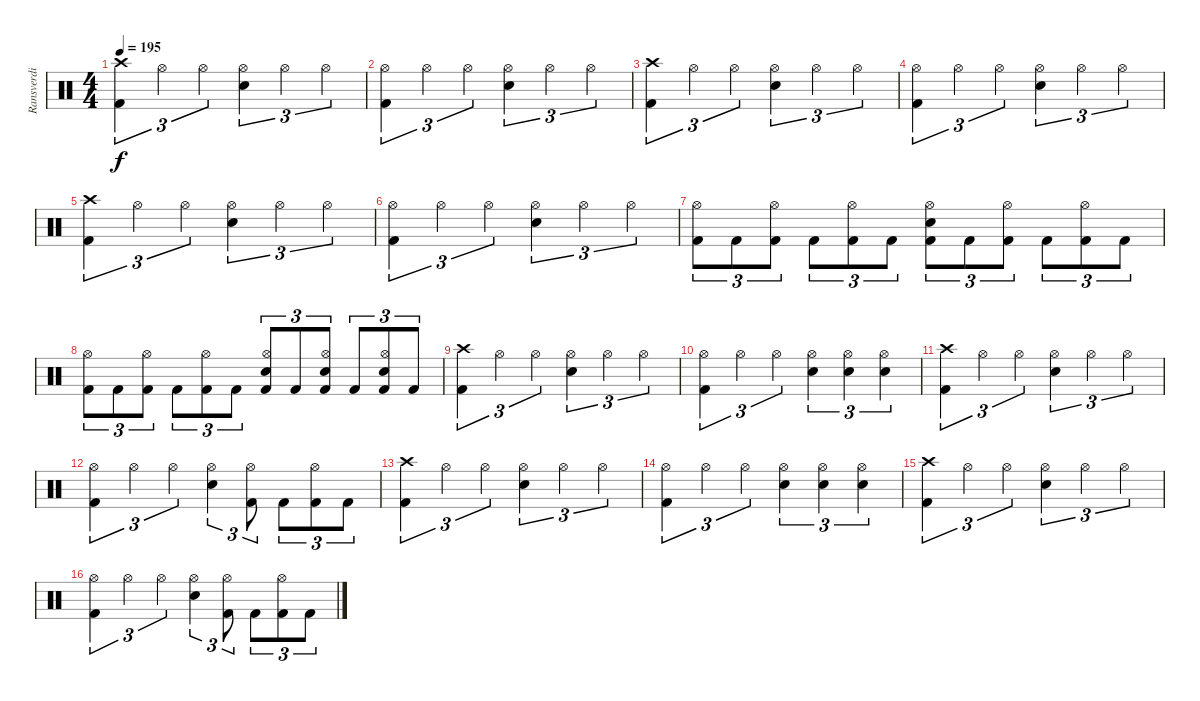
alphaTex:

\track ("Ransverdi" "Ransverdi") {instrument percussion}
\staff {score}
\articulation defaults
\ts (4 4)
\tempo 195
\clef neutral
\ks c
("Crash high (hit)" "Kick (hit) 2").4{tu (3 2) dy f} "Hi-Hat (open)".4{tu (3 2)} "Hi-Hat (open)".4{tu (3 2)} ("Hi-Hat (open)" "Snare (hit) 2").4{tu (3 2)} "Hi-Hat (open)".4{tu (3 2)} "Hi-Hat (open)".4{tu (3 2)} |
("Hi-Hat (open)" "Kick (hit) 2").4{tu (3 2)} "Hi-Hat (open)".4{tu (3 2)} "Hi-Hat (open)".4{tu (3 2)} ("Hi-Hat (open)" "Snare (hit) 2").4{tu (3 2)} "Hi-Hat (open)".4{tu (3 2)} "Hi-Hat (open)".4{tu (3 2)} |
("Crash high (hit)" "Kick (hit) 2").4{tu (3 2)} "Hi-Hat (open)".4{tu (3 2)} "Hi-Hat (open)".4{tu (3 2)} ("Hi-Hat (open)" "Snare (hit) 2").4{tu (3 2)} "Hi-Hat (open)".4{tu (3 2)} "Hi-Hat (open)".4{tu (3 2)} |
("Hi-Hat (open)" "Kick (hit) 2").4{tu (3 2)} "Hi-Hat (open)".4{tu (3 2)} "Hi-Hat (open)".4{tu (3 2)} ("Hi-Hat (open)" "Snare (hit) 2").4{tu (3 2)} "Hi-Hat (open)".4{tu (3 2)} "Hi-Hat (open)".4{tu (3 2)} |
("Crash high (hit)" "Kick (hit) 2").4{tu (3 2)} "Hi-Hat (open)".4{tu (3 2)} "Hi-Hat (open)".4{tu (3 2)} ("Hi-Hat (open)" "Snare (hit) 2").4{tu (3 2)} "Hi-Hat (open)".4{tu (3 2)} "Hi-Hat (open)".4{tu (3 2)} |
("Hi-Hat (open)" "Kick (hit) 2").4{tu (3 2)} "Hi-Hat (open)".4{tu (3 2)} "Hi-Hat (open)".4{tu (3 2)} ("Hi-Hat (open)" "Snare (hit) 2").4{tu (3 2)} "Hi-Hat (open)".4{tu (3 2)} "Hi-Hat (open)".4{tu (3 2)} |
("Hi-Hat (open)" "Kick (hit) 2").8{tu (3 2)} "Kick (hit) 2".8{tu (3 2)} ("Hi-Hat (open)" "Kick (hit) 2").8{tu (3 2)} "Kick (hit) 2".8{tu (3 2)} ("Hi-Hat (open)" "Kick (hit) 2").8{tu (3 2)} "Kick (hit) 2".8{tu (3 2)} ("Hi-Hat (open)" "Snare (hit) 2" "Kick (hit) 2").8{tu (3 2)} "Kick (hit) 2".8{tu (3 2)} ("Hi-Hat (open)" "Kick (hit) 2").8{tu (3 2)} "Kick (hit) 2".8{tu (3 2)} ("Hi-Hat (open)" "Kick (hit) 2").8{tu (3 2)} "Kick (hit) 2".8{tu (3 2)} |
("Hi-Hat (open)" "Kick (hit) 2").8{tu (3 2)} "Kick (hit) 2".8{tu (3 2)} ("Hi-Hat (open)" "Kick (hit) 2").8{tu (3 2)} "Kick (hit) 2".8{tu (3 2)} ("Hi-Hat (open)" "Kick (hit) 2").8{tu (3 2)} "Kick (hit) 2".8{tu (3 2)} ("Hi-Hat (open)" "Snare (hit) 2" "Kick (hit) 2").8{tu (3 2)} "Kick (hit) 2".8{tu (3 2)} ("Hi-Hat (open)" "Snare (hit) 2" "Kick (hit) 2").8{tu (3 2)} "Kick (hit) 2".8{tu (3 2)} ("Hi-Hat (open)" "Snare (hit) 2" "Kick (hit) 2").8{tu (3 2)} "Kick (hit) 2".8{tu (3 2)} |
("Crash high (hit)" "Kick (hit) 2").4{tu (3 2)} "Hi-Hat (open)".4{tu (3 2)} "Hi-Hat (open)".4{tu (3 2)} ("Hi-Hat (open)" "Snare (hit) 2").4{tu (3 2)} "Hi-Hat (open)".4{tu (3 2)} "Hi-Hat (open)".4{tu (3 2)} |
("Hi-Hat (open)" "Kick (hit) 2").4{tu (3 2)} "Hi-Hat (open)".4{tu (3 2)} "Hi-Hat (open)".4{tu (3 2)} ("Hi-Hat (open)" "Snare (hit) 2").4{tu (3 2)} ("Hi-Hat (open)" "Snare (hit) 2").4{tu (3 2)} ("Hi-Hat (open)" "Snare (hit) 2").4{tu (3 2)} |
("Crash high (hit)" "Kick (hit) 2").4{tu (3 2)} "Hi-Hat (open)".4{tu (3 2)} "Hi-Hat (open)".4{tu (3 2)} ("Hi-Hat (open)" "Snare (hit) 2").4{tu (3 2)} "Hi-Hat (open)".4{tu (3 2)} "Hi-Hat (open)".4{tu (3 2)} |
("Hi-Hat (open)" "Kick (hit) 2").4{tu (3 2)} "Hi-Hat (open)".4{tu (3 2)} "Hi-Hat (open)".4{tu (3 2)} ("Hi-Hat (open)" "Snare (hit) 2").4{tu (3 2)} ("Hi-Hat (open)" "Kick (hit) 2").8{tu (3 2)} "Kick (hit) 2".8{tu (3 2)} ("Hi-Hat (open)" "Kick (hit) 2").8{tu (3 2)} "Kick (hit) 2".8{tu (3 2)} |
("Crash high (hit)" "Kick (hit) 2").4{tu (3 2)} "Hi-Hat (open)".4{tu (3 2)} "Hi-Hat (open)".4{tu (3 2)} ("Hi-Hat (open)" "Snare (hit) 2").4{tu (3 2)} "Hi-Hat (open)".4{tu (3 2)} "Hi-Hat (open)".4{tu (3 2)} |
("Hi-Hat (open)" "Kick (hit) 2").4{tu (3 2)} "Hi-Hat (open)".4{tu (3 2)} "Hi-Hat (open)".4{tu (3 2)} ("Hi-Hat (open)" "Snare (hit) 2").4{tu (3 2)} ("Hi-Hat (open)" "Snare (hit) 2").4{tu (3 2)} ("Hi-Hat (open)" "Snare (hit) 2").4{tu (3 2)} |
("Crash high (hit)" "Kick (hit) 2").4{tu (3 2)} "Hi-Hat (open)".4{tu (3 2)} "Hi-Hat (open)".4{tu (3 2)} ("Hi-Hat (open)" "Snare (hit) 2").4{tu (3 2)} "Hi-Hat (open)".4{tu (3 2)} "Hi-Hat (open)".4{tu (3 2)} |
("Hi-Hat (open)" "Kick (hit) 2").4{tu (3 2)} "Hi-Hat (open)".4{tu (3 2)} "Hi-Hat (open)".4{tu (3 2)} ("Hi-Hat (open)" "Snare (hit) 2").4{tu (3 2)} ("Hi-Hat (open)" "Kick (hit) 2").8{tu (3 2)} "Kick (hit) 2".8{tu (3 2)} ("Hi-Hat (open)" "Kick (hit) 2").8{tu (3 2)} "Kick (hit) 2".8{tu (3 2)}
